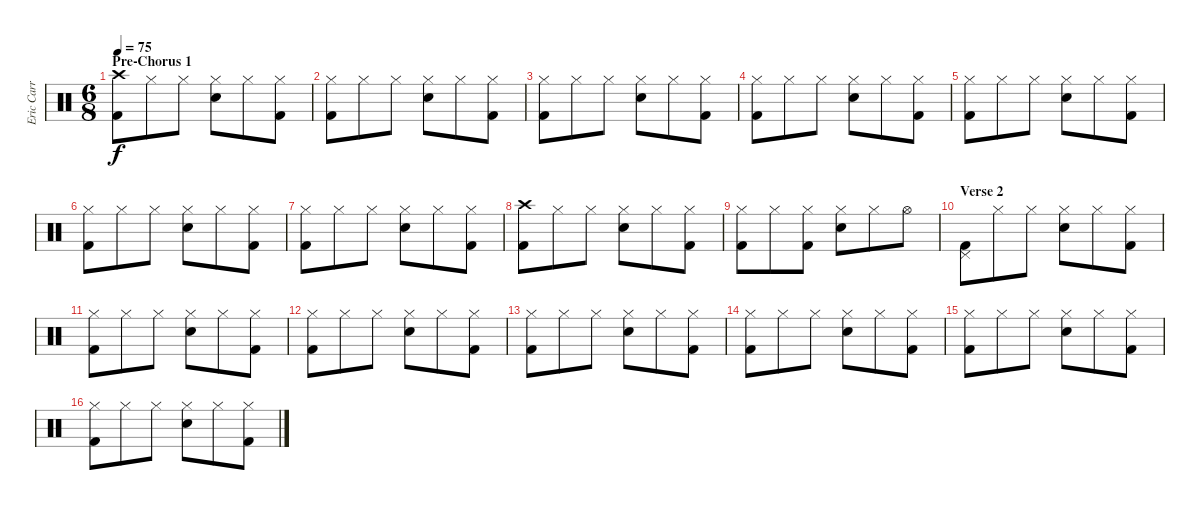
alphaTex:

\track ("Eric Carr" "Eric Carr") {instrument percussion}
\staff {score}
\articulation defaults
\ts (6 8)
\section ("" "Pre-Chorus 1")
\tempo 75
\clef neutral
\ks c
("Crash high (hit)" "Kick (hit) 2").8{dy f} "Hi-Hat (closed)".8 "Hi-Hat (closed)".8 ("Hi-Hat (closed)" "Electric Snare (hit)").8 "Hi-Hat (closed)".8 ("Hi-Hat (closed)" "Kick (hit) 2").8 |
("Hi-Hat (closed)" "Kick (hit) 2").8 "Hi-Hat (closed)".8 "Hi-Hat (closed)".8 ("Hi-Hat (closed)" "Electric Snare (hit)").8 "Hi-Hat (closed)".8 ("Hi-Hat (closed)" "Kick (hit) 2").8 |
("Hi-Hat (closed)" "Kick (hit) 2").8 "Hi-Hat (closed)".8 "Hi-Hat (closed)".8 ("Hi-Hat (closed)" "Electric Snare (hit)").8 "Hi-Hat (closed)".8 ("Hi-Hat (closed)" "Kick (hit) 2").8 |
("Hi-Hat (closed)" "Kick (hit) 2").8 "Hi-Hat (closed)".8 "Hi-Hat (closed)".8 ("Hi-Hat (closed)" "Electric Snare (hit)").8 "Hi-Hat (closed)".8 ("Hi-Hat (closed)" "Kick (hit) 2").8 |
("Hi-Hat (closed)" "Kick (hit) 2").8 "Hi-Hat (closed)".8 "Hi-Hat (closed)".8 ("Hi-Hat (closed)" "Electric Snare (hit)").8 "Hi-Hat (closed)".8 ("Hi-Hat (closed)" "Kick (hit) 2").8 |
("Hi-Hat (closed)" "Kick (hit) 2").8 "Hi-Hat (closed)".8 "Hi-Hat (closed)".8 ("Hi-Hat (closed)" "Electric Snare (hit)").8 "Hi-Hat (closed)".8 ("Hi-Hat (closed)" "Kick (hit) 2").8 |
("Hi-Hat (closed)" "Kick (hit) 2").8 "Hi-Hat (closed)".8 "Hi-Hat (closed)".8 ("Hi-Hat (closed)" "Electric Snare (hit)").8 "Hi-Hat (closed)".8 ("Hi-Hat (closed)" "Kick (hit) 2").8 |
("Crash high (hit)" "Kick (hit) 2").8 "Hi-Hat (closed)".8 "Hi-Hat (closed)".8 ("Hi-Hat (closed)" "Electric Snare (hit)").8 "Hi-Hat (closed)".8 ("Hi-Hat (closed)" "Kick (hit) 2").8 |
("Hi-Hat (closed)" "Kick (hit) 2").8 "Hi-Hat (closed)".8 ("Hi-Hat (closed)" "Kick (hit) 2").8 ("Hi-Hat (closed)" "Electric Snare (hit)").8 "Hi-Hat (closed)".8 "Hi-Hat (open)".8 |
\section ("" "Verse 2")
("Pedal Hi-Hat (hit)" "Kick (hit) 2").8 "Hi-Hat (closed)".8 "Hi-Hat (closed)".8 ("Hi-Hat (closed)" "Electric Snare (hit)").8 "Hi-Hat (closed)".8 ("Hi-Hat (closed)" "Kick (hit) 2").8 |
("Hi-Hat (closed)" "Kick (hit) 2").8 "Hi-Hat (closed)".8 "Hi-Hat (closed)".8 ("Hi-Hat (closed)" "Electric Snare (hit)").8 "Hi-Hat (closed)".8 ("Hi-Hat (closed)" "Kick (hit) 2").8 |
("Hi-Hat (closed)" "Kick (hit) 2").8 "Hi-Hat (closed)".8 "Hi-Hat (closed)".8 ("Hi-Hat (closed)" "Electric Snare (hit)").8 "Hi-Hat (closed)".8 ("Hi-Hat (closed)" "Kick (hit) 2").8 |
("Hi-Hat (closed)" "Kick (hit) 2").8 "Hi-Hat (closed)".8 "Hi-Hat (closed)".8 ("Hi-Hat (closed)" "Electric Snare (hit)").8 "Hi-Hat (closed)".8 ("Hi-Hat (closed)" "Kick (hit) 2").8 |
("Hi-Hat (closed)" "Kick (hit) 2").8 "Hi-Hat (closed)".8 "Hi-Hat (closed)".8 ("Hi-Hat (closed)" "Electric Snare (hit)").8 "Hi-Hat (closed)".8 ("Hi-Hat (closed)" "Kick (hit) 2").8 |
("Hi-Hat (closed)" "Kick (hit) 2").8 "Hi-Hat (closed)".8 "Hi-Hat (closed)".8 ("Hi-Hat (closed)" "Electric Snare (hit)").8 "Hi-Hat (closed)".8 ("Hi-Hat (closed)" "Kick (hit) 2").8 |
("Hi-Hat (closed)" "Kick (hit) 2").8 "Hi-Hat (closed)".8 "Hi-Hat (closed)".8 ("Hi-Hat (closed)" "Electric Snare (hit)").8 "Hi-Hat (closed)".8 ("Hi-Hat (closed)" "Kick (hit) 2").8
